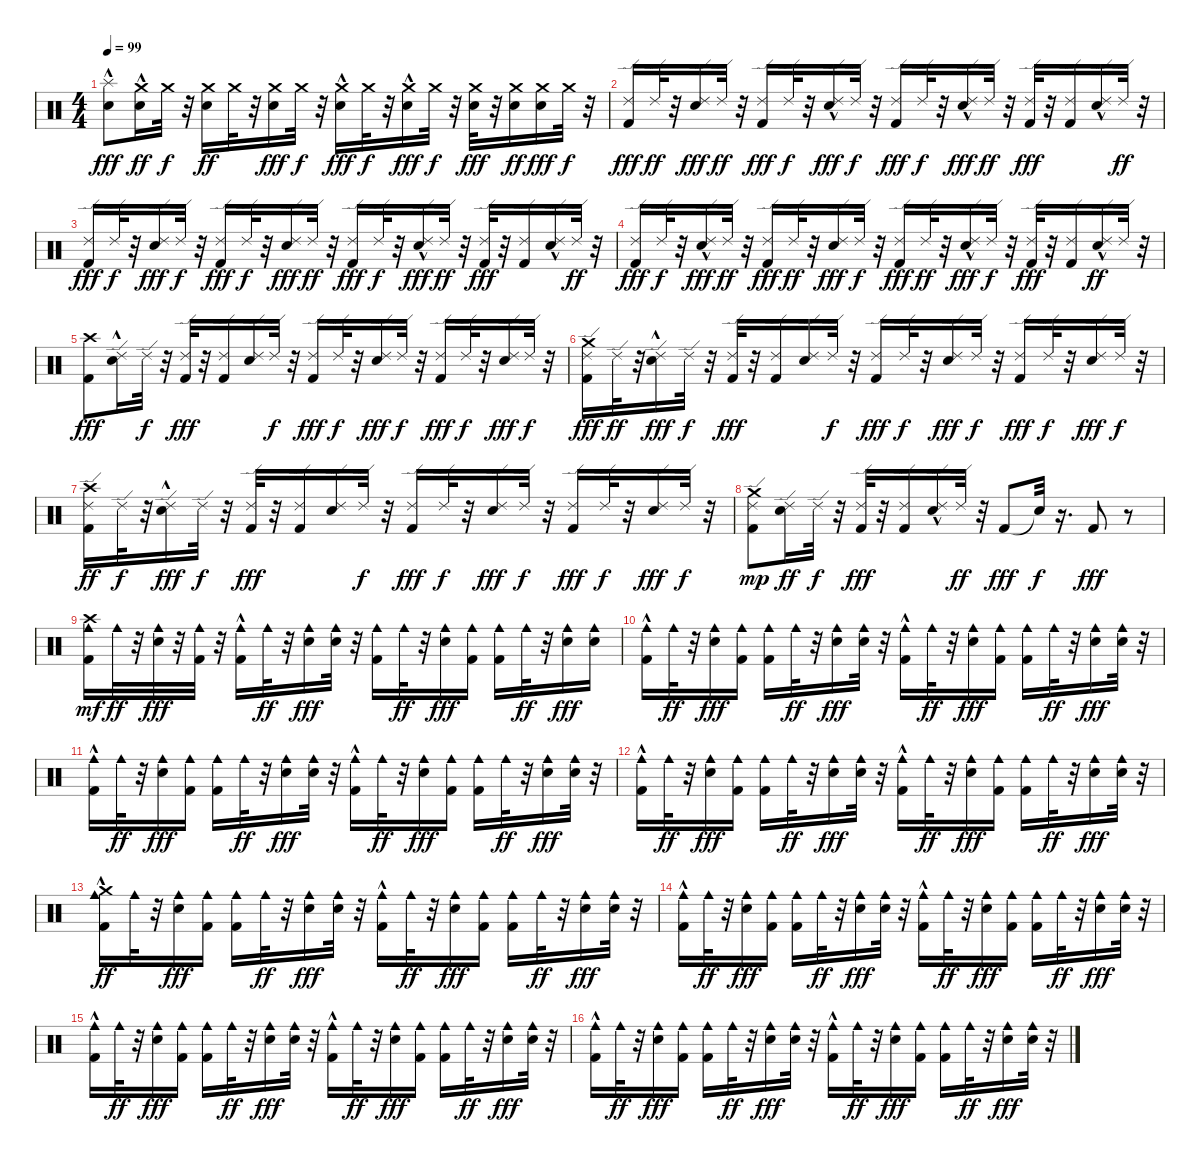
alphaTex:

\track "" {instrument percussion}
\staff {score}
\articulation defaults
\ts (4 4)
\tempo 99
\clef neutral
\ks c
("Metronome (bell)" "Splash (hit)"{hac}).8{dy fff} ("Snare (hit) 2"{hac} "Crash medium (hit)").16{dy ff} "Crash medium (hit)".32{dy f} r.32 ("Metronome (bell)" "Crash medium (hit)").16{dy ff} "Crash medium (hit)".32 r.32 ("Snare (hit) 2" "Crash medium (hit)").16{dy fff} "Crash medium (hit)".32{dy f} r.32 ("Crash medium (hit)" "Metronome (bell)"{hac}).16{dy fff} "Crash medium (hit)".32{dy f} r.32 ("Crash medium (hit)" "Snare (hit) 2"{hac}).16{dy fff} "Crash medium (hit)".32{dy f} r.32 ("Crash medium (hit)" "Metronome (bell)").32{dy fff} r.32 ("Crash medium (hit)" "Metronome (bell)").16{dy ff} ("Crash medium (hit)" "Snare (hit) 2").16{dy fff} "Crash medium (hit)".32{dy f} r.32 |
("Ride (edge) 2" "Kick (hit) 2").16{dy fff} "Ride (edge) 2".32{dy ff} r.32 ("Ride (edge) 2" "Electric Snare (hit)").16{dy fff} "Ride (edge) 2".32{dy ff} r.32 ("Ride (edge) 2" "Kick (hit) 2").16{dy fff} "Ride (edge) 2".32{dy f} r.32 ("Ride (edge) 2" "Electric Snare (hit)"{hac}).16{dy fff} "Ride (edge) 2".32{dy f} r.32 ("Ride (edge) 2" "Kick (hit) 2").16{dy fff} "Ride (edge) 2".32{dy f} r.32 ("Ride (edge) 2" "Electric Snare (hit)"{hac}).16{dy fff} "Ride (edge) 2".32{dy ff} r.32 ("Ride (edge) 2" "Kick (hit) 2").32{dy fff} r.32 ("Ride (edge) 2" "Kick (hit) 2").16 ("Ride (edge) 2" "Electric Snare (hit)"{hac}).16 "Ride (edge) 2".32{dy ff} r.32 |
("Ride (edge) 2" "Kick (hit) 2").16{dy fff} "Ride (edge) 2".32{dy f} r.32 ("Ride (edge) 2" "Electric Snare (hit)").16{dy fff} "Ride (edge) 2".32{dy f} r.32 ("Ride (edge) 2" "Kick (hit) 2").16{dy fff} "Ride (edge) 2".32{dy f} r.32 ("Ride (edge) 2" "Electric Snare (hit)").16{dy fff} "Ride (edge) 2".32{dy ff} r.32 ("Ride (edge) 2" "Kick (hit) 2").16{dy fff} "Ride (edge) 2".32{dy f} r.32 ("Ride (edge) 2" "Electric Snare (hit)"{hac}).16{dy fff} "Ride (edge) 2".32{dy ff} r.32 ("Ride (edge) 2" "Kick (hit) 2").32{dy fff} r.32 ("Ride (edge) 2" "Kick (hit) 2").16 ("Ride (edge) 2" "Electric Snare (hit)"{hac}).16 "Ride (edge) 2".32{dy ff} r.32 |
("Ride (edge) 2" "Kick (hit) 2").16{dy fff} "Ride (edge) 2".32{dy f} r.32 ("Ride (edge) 2" "Electric Snare (hit)"{hac}).16{dy fff} "Ride (edge) 2".32{dy ff} r.32 ("Ride (edge) 2" "Kick (hit) 2").16{dy fff} "Ride (edge) 2".32{dy ff} r.32 ("Ride (edge) 2" "Electric Snare (hit)").16{dy fff} "Ride (edge) 2".32{dy f} r.32 ("Ride (edge) 2" "Kick (hit) 2").16{dy fff} "Ride (edge) 2".32{dy ff} r.32 ("Electric Snare (hit)"{hac} "Ride (edge) 2").16{dy fff} "Ride (edge) 2".32{dy f} r.32 ("Ride (edge) 2" "Kick (hit) 2").32{dy fff} r.32 ("Ride (edge) 2" "Kick (hit) 2").16 ("Electric Snare (hit)"{hac} "Ride (edge) 2").16{dy ff} "Ride (edge) 2".32 r.32 |
("Kick (hit) 2" "Crash high (hit)").8{dy fff} ("Ride (edge) 2" "Electric Snare (hit)"{hac}).16 "Ride (edge) 2".32{dy f} r.32 ("Ride (edge) 2" "Kick (hit) 2").32{dy fff} r.32 ("Ride (edge) 2" "Kick (hit) 2").16 ("Ride (edge) 2" "Electric Snare (hit)").16 "Ride (edge) 2".32{dy f} r.32 ("Ride (edge) 2" "Kick (hit) 2").16{dy fff} "Ride (edge) 2".32{dy f} r.32 ("Ride (edge) 2" "Electric Snare (hit)").16{dy fff} "Ride (edge) 2".32{dy f} r.32 ("Ride (edge) 2" "Kick (hit) 2").16{dy fff} "Ride (edge) 2".32{dy f} r.32 ("Ride (edge) 2" "Electric Snare (hit)").16{dy fff} "Ride (edge) 2".32{dy f} r.32 |
("Ride (edge) 2" "Kick (hit) 2" "Crash medium (hit)").16{dy fff} "Ride (edge) 2".32{dy ff} r.32 ("Ride (edge) 2" "Electric Snare (hit)"{hac}).16{dy fff} "Ride (edge) 2".32{dy f} r.32 ("Ride (edge) 2" "Kick (hit) 2").32{dy fff} r.32 ("Ride (edge) 2" "Kick (hit) 2").16 ("Ride (edge) 2" "Electric Snare (hit)").16 "Ride (edge) 2".32{dy f} r.32 ("Ride (edge) 2" "Kick (hit) 2").16{dy fff} "Ride (edge) 2".32{dy f} r.32 ("Ride (edge) 2" "Electric Snare (hit)").16{dy fff} "Ride (edge) 2".32{dy f} r.32 ("Ride (edge) 2" "Kick (hit) 2").16{dy fff} "Ride (edge) 2".32{dy f} r.32 ("Ride (edge) 2" "Electric Snare (hit)").16{dy fff} "Ride (edge) 2".32{dy f} r.32 |
("Kick (hit) 2" "Ride (edge) 2" "Crash high (hit)").16{dy ff} "Ride (edge) 2".32{dy f} r.32 ("Ride (edge) 2" "Electric Snare (hit)"{hac}).16{dy fff} "Ride (edge) 2".32{dy f} r.32 ("Ride (edge) 2" "Kick (hit) 2").32{dy fff} r.32 ("Ride (edge) 2" "Kick (hit) 2").16 ("Ride (edge) 2" "Electric Snare (hit)").16 "Ride (edge) 2".32{dy f} r.32 ("Ride (edge) 2" "Kick (hit) 2").16{dy fff} "Ride (edge) 2".32{dy f} r.32 ("Ride (edge) 2" "Electric Snare (hit)").16{dy fff} "Ride (edge) 2".32{dy f} r.32 ("Ride (edge) 2" "Kick (hit) 2").16{dy fff} "Ride (edge) 2".32{dy f} r.32 ("Electric Snare (hit)" "Ride (edge) 2").16{dy fff} "Ride (edge) 2".32{dy f} r.32 |
("Kick (hit) 2" "Crash medium (hit)" "Ride (edge) 2").8{dy mp} ("Electric Snare (hit)" "Ride (edge) 2").16{dy ff} "Ride (edge) 2".32{dy f} r.32 ("Ride (edge) 2" "Kick (hit) 2").32{dy fff} r.32 ("Ride (edge) 2" "Kick (hit) 2").16 ("Ride (edge) 2" "Electric Snare (hit)"{hac}).16 "Ride (edge) 2".32{dy ff} r.32 "Kick (hit) 2".8{dy fff} "Snare (hit)"{t}.32{dy f} r.16{d} "Kick (hit) 2".8{dy fff} r.8 |
("Cowbell medium (hit)" "Kick (hit) 2" "Crash high (hit)").16{dy mf} "Cowbell medium (hit)".32{dy ff} r.32 ("Cowbell medium (hit)" "Electric Snare (hit)").32{dy fff} r.32 ("Cowbell medium (hit)" "Kick (hit) 2").32 r.32 ("Cowbell medium (hit)" "Kick (hit) 2"{hac}).16 "Cowbell medium (hit)".32{dy ff} r.32 ("Cowbell medium (hit)" "Electric Snare (hit)").16{dy fff} ("Cowbell medium (hit)" "Electric Snare (hit)").32 r.32 ("Cowbell medium (hit)" "Kick (hit) 2").16 "Cowbell medium (hit)".32{dy ff} r.32 ("Cowbell medium (hit)" "Electric Snare (hit)").16{dy fff} ("Cowbell medium (hit)" "Kick (hit) 2").16 ("Cowbell medium (hit)" "Kick (hit) 2").16 "Cowbell medium (hit)".32{dy ff} r.32 ("Cowbell medium (hit)" "Electric Snare (hit)").16{dy fff} ("Cowbell medium (hit)" "Electric Snare (hit)").16 |
("Cowbell medium (hit)" "Kick (hit) 2"{hac}).16 "Cowbell medium (hit)".32{dy ff} r.32 ("Cowbell medium (hit)" "Electric Snare (hit)").16{dy fff} ("Cowbell medium (hit)" "Kick (hit) 2").16 ("Cowbell medium (hit)" "Kick (hit) 2").16 "Cowbell medium (hit)".32{dy ff} r.32 ("Cowbell medium (hit)" "Electric Snare (hit)").16{dy fff} ("Cowbell medium (hit)" "Electric Snare (hit)").32 r.32 ("Cowbell medium (hit)" "Kick (hit) 2"{hac}).16 "Cowbell medium (hit)".32{dy ff} r.32 ("Cowbell medium (hit)" "Electric Snare (hit)").16{dy fff} ("Cowbell medium (hit)" "Kick (hit) 2").16 ("Cowbell medium (hit)" "Kick (hit) 2").16 "Cowbell medium (hit)".32{dy ff} r.32 ("Cowbell medium (hit)" "Electric Snare (hit)").16{dy fff} ("Cowbell medium (hit)" "Electric Snare (hit)").32 r.32 |
("Cowbell medium (hit)" "Kick (hit) 2"{hac}).16 "Cowbell medium (hit)".32{dy ff} r.32 ("Cowbell medium (hit)" "Electric Snare (hit)").16{dy fff} ("Cowbell medium (hit)" "Kick (hit) 2").16 ("Cowbell medium (hit)" "Kick (hit) 2").16 "Cowbell medium (hit)".32{dy ff} r.32 ("Cowbell medium (hit)" "Electric Snare (hit)").16{dy fff} ("Cowbell medium (hit)" "Electric Snare (hit)").32 r.32 ("Cowbell medium (hit)" "Kick (hit) 2"{hac}).16 "Cowbell medium (hit)".32{dy ff} r.32 ("Cowbell medium (hit)" "Electric Snare (hit)").16{dy fff} ("Cowbell medium (hit)" "Kick (hit) 2").16 ("Cowbell medium (hit)" "Kick (hit) 2").16 "Cowbell medium (hit)".32{dy ff} r.32 ("Cowbell medium (hit)" "Electric Snare (hit)").16{dy fff} ("Cowbell medium (hit)" "Electric Snare (hit)").32 r.32 |
("Cowbell medium (hit)" "Kick (hit) 2"{hac}).16 "Cowbell medium (hit)".32{dy ff} r.32 ("Cowbell medium (hit)" "Electric Snare (hit)").16{dy fff} ("Cowbell medium (hit)" "Kick (hit) 2").16 ("Cowbell medium (hit)" "Kick (hit) 2").16 "Cowbell medium (hit)".32{dy ff} r.32 ("Cowbell medium (hit)" "Electric Snare (hit)").16{dy fff} ("Cowbell medium (hit)" "Electric Snare (hit)").32 r.32 ("Cowbell medium (hit)" "Kick (hit) 2"{hac}).16 "Cowbell medium (hit)".32{dy ff} r.32 ("Cowbell medium (hit)" "Electric Snare (hit)").16{dy fff} ("Cowbell medium (hit)" "Kick (hit) 2").16 ("Cowbell medium (hit)" "Kick (hit) 2").16 "Cowbell medium (hit)".32{dy ff} r.32 ("Cowbell medium (hit)" "Electric Snare (hit)").16{dy fff} ("Cowbell medium (hit)" "Electric Snare (hit)").32 r.32 |
("Cowbell medium (hit)" "Kick (hit) 2"{hac} "Crash medium (hit)"{hac}).16{dy ff} "Cowbell medium (hit)".32 r.32 ("Cowbell medium (hit)" "Electric Snare (hit)").16{dy fff} ("Cowbell medium (hit)" "Kick (hit) 2").16 ("Cowbell medium (hit)" "Kick (hit) 2").16 "Cowbell medium (hit)".32{dy ff} r.32 ("Cowbell medium (hit)" "Electric Snare (hit)").16{dy fff} ("Cowbell medium (hit)" "Electric Snare (hit)").32 r.32 ("Cowbell medium (hit)" "Kick (hit) 2"{hac}).16 "Cowbell medium (hit)".32{dy ff} r.32 ("Cowbell medium (hit)" "Electric Snare (hit)").16{dy fff} ("Cowbell medium (hit)" "Kick (hit) 2").16 ("Cowbell medium (hit)" "Kick (hit) 2").16 "Cowbell medium (hit)".32{dy ff} r.32 ("Cowbell medium (hit)" "Electric Snare (hit)").16{dy fff} ("Cowbell medium (hit)" "Electric Snare (hit)").32 r.32 |
("Cowbell medium (hit)" "Kick (hit) 2"{hac}).16 "Cowbell medium (hit)".32{dy ff} r.32 ("Cowbell medium (hit)" "Electric Snare (hit)").16{dy fff} ("Cowbell medium (hit)" "Kick (hit) 2").16 ("Cowbell medium (hit)" "Kick (hit) 2").16 "Cowbell medium (hit)".32{dy ff} r.32 ("Cowbell medium (hit)" "Electric Snare (hit)").16{dy fff} ("Cowbell medium (hit)" "Electric Snare (hit)").32 r.32 ("Cowbell medium (hit)" "Kick (hit) 2"{hac}).16 "Cowbell medium (hit)".32{dy ff} r.32 ("Cowbell medium (hit)" "Electric Snare (hit)").16{dy fff} ("Cowbell medium (hit)" "Kick (hit) 2").16 ("Cowbell medium (hit)" "Kick (hit) 2").16 "Cowbell medium (hit)".32{dy ff} r.32 ("Cowbell medium (hit)" "Electric Snare (hit)").16{dy fff} ("Cowbell medium (hit)" "Electric Snare (hit)").32 r.32 |
("Cowbell medium (hit)" "Kick (hit) 2"{hac}).16 "Cowbell medium (hit)".32{dy ff} r.32 ("Cowbell medium (hit)" "Electric Snare (hit)").16{dy fff} ("Cowbell medium (hit)" "Kick (hit) 2").16 ("Cowbell medium (hit)" "Kick (hit) 2").16 "Cowbell medium (hit)".32{dy ff} r.32 ("Cowbell medium (hit)" "Electric Snare (hit)").16{dy fff} ("Cowbell medium (hit)" "Electric Snare (hit)").32 r.32 ("Cowbell medium (hit)" "Kick (hit) 2"{hac}).16 "Cowbell medium (hit)".32{dy ff} r.32 ("Cowbell medium (hit)" "Electric Snare (hit)").16{dy fff} ("Cowbell medium (hit)" "Kick (hit) 2").16 ("Cowbell medium (hit)" "Kick (hit) 2").16 "Cowbell medium (hit)".32{dy ff} r.32 ("Cowbell medium (hit)" "Electric Snare (hit)").16{dy fff} ("Cowbell medium (hit)" "Electric Snare (hit)").32 r.32 |
("Cowbell medium (hit)" "Kick (hit) 2"{hac}).16 "Cowbell medium (hit)".32{dy ff} r.32 ("Cowbell medium (hit)" "Electric Snare (hit)").16{dy fff} ("Cowbell medium (hit)" "Kick (hit) 2").16 ("Cowbell medium (hit)" "Kick (hit) 2").16 "Cowbell medium (hit)".32{dy ff} r.32 ("Cowbell medium (hit)" "Electric Snare (hit)").16{dy fff} ("Cowbell medium (hit)" "Electric Snare (hit)").32 r.32 ("Cowbell medium (hit)" "Kick (hit) 2"{hac}).16 "Cowbell medium (hit)".32{dy ff} r.32 ("Cowbell medium (hit)" "Electric Snare (hit)").16{dy fff} ("Cowbell medium (hit)" "Kick (hit) 2").16 ("Cowbell medium (hit)" "Kick (hit) 2").16 "Cowbell medium (hit)".32{dy ff} r.32 ("Cowbell medium (hit)" "Electric Snare (hit)").16{dy fff} ("Cowbell medium (hit)" "Electric Snare (hit)").32 r.32
